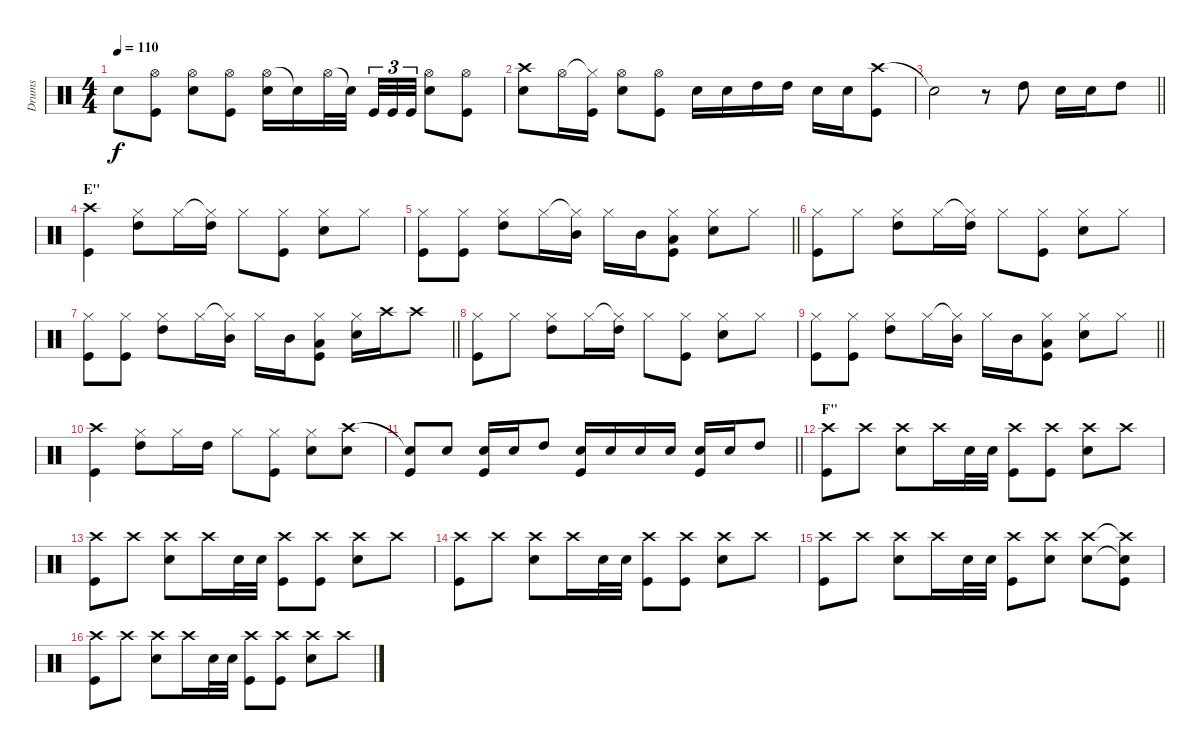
\track ("Drums" "Drums") {instrument percussion}
\staff {score}
\articulation defaults
\ts (4 4)
\tempo 110
\clef neutral
\ks c "Snare (hit)"{t}.8{dy f}
("Hi-Hat (open)" "Kick (hit)").8 ("Hi-Hat (open)" "Snare (hit) 2").8 ("Hi-Hat (open)" "Kick (hit)").8 ("Hi-Hat (open)" "Snare (hit) 2").16 "Snare (hit)"{t}.16 "Hi-Hat (open)".32 "Snare (hit)"{t}.32{beam splitsecondary} "Kick (hit)".32{tu (3 2)} "Kick (hit)".32{tu (3 2)} "Kick (hit)".32{tu (3 2)} ("Hi-Hat (open)" "Snare (hit) 2").8 ("Hi-Hat (open)" "Kick (hit)").8 |
("Crash high (hit)" "Snare (hit) 2").8 "Hi-Hat (open)".16 ("Hi-Hat (closed)"{t} "Kick (hit)").16 ("Hi-Hat (open)" "Snare (hit) 2").8 ("Hi-Hat (open)" "Kick (hit)").8 "Snare (hit) 2".16 "Snare (hit) 2".16 "High Tom (hit)".16 "High Tom (hit)".16 "Snare (hit) 2".16 "Snare (hit) 2".16 ("Crash high (hit)" "Kick (hit)").8 |
\barLineRight lightlight "Snare (hit)"{t}.2
r.8 "High Tom (hit)".8 "Snare (hit) 2".16 "Snare (hit) 2".16 "High Tom (hit)".8 |
\section ("" "E\"")
("Crash high (hit)" "Kick (hit)").4 ("Hi-Hat (closed)" "High Tom (hit)").8 "Hi-Hat (closed)".16 ("Hi-Hat (closed)"{t} "High Tom (hit)").16 "Hi-Hat (closed)".8 ("Hi-Hat (closed)" "Kick (hit)").8 ("Hi-Hat (closed)" "Snare (hit) 2").8 "Hi-Hat (closed)".8 |
\barLineRight lightlight
("Hi-Hat (closed)" "Kick (hit)").8 ("Hi-Hat (closed)" "Kick (hit)").8 ("Hi-Hat (closed)" "High Tom (hit)").8 "Hi-Hat (closed)".16 ("Hi-Hat (closed)"{t} "Mid Tom (hit)").16 "Hi-Hat (closed)".16 "Mid Tom (hit)".16 ("Hi-Hat (closed)" "Low Floor Tom (hit)" "Kick (hit)").8 ("Hi-Hat (closed)" "Snare (hit) 2").8 "Hi-Hat (closed)".8 |
("Hi-Hat (closed)" "Kick (hit)").8 "Hi-Hat (closed)".8 ("Hi-Hat (closed)" "High Tom (hit)").8 "Hi-Hat (closed)".16 ("Hi-Hat (closed)"{t} "High Tom (hit)").16 "Hi-Hat (closed)".8 ("Hi-Hat (closed)" "Kick (hit)").8 ("Hi-Hat (closed)" "Snare (hit) 2").8 "Hi-Hat (closed)".8 |
\barLineRight lightlight
("Hi-Hat (closed)" "Kick (hit)").8 ("Hi-Hat (closed)" "Kick (hit)").8 ("Hi-Hat (closed)" "High Tom (hit)").8 "Hi-Hat (closed)".16 ("Hi-Hat (closed)"{t} "Mid Tom (hit)").16 "Hi-Hat (closed)".16 "Mid Tom (hit)".16 ("Hi-Hat (closed)" "Low Floor Tom (hit)" "Kick (hit)").8 ("Hi-Hat (closed)" "Snare (hit) 2").16 "Crash high (hit)".16 "Crash high (hit)".8 |
("Hi-Hat (closed)" "Kick (hit)").8 "Hi-Hat (closed)".8 ("Hi-Hat (closed)" "High Tom (hit)").8 "Hi-Hat (closed)".16 ("Hi-Hat (closed)"{t} "High Tom (hit)").16 "Hi-Hat (closed)".8 ("Hi-Hat (closed)" "Kick (hit)").8 ("Hi-Hat (closed)" "Snare (hit) 2").8 "Hi-Hat (closed)".8 |
\barLineRight lightlight
("Hi-Hat (closed)" "Kick (hit)").8 ("Hi-Hat (closed)" "Kick (hit)").8 ("Hi-Hat (closed)" "High Tom (hit)").8 "Hi-Hat (closed)".16 ("Hi-Hat (closed)"{t} "Mid Tom (hit)").16 "Hi-Hat (closed)".16 "Mid Tom (hit)".16 ("Hi-Hat (closed)" "Low Floor Tom (hit)" "Kick (hit)").8 ("Hi-Hat (closed)" "Snare (hit) 2").8 "Hi-Hat (closed)".8 |
("Crash high (hit)" "Kick (hit)").4 ("Hi-Hat (closed)" "High Tom (hit)").8 "Hi-Hat (closed)".16 "High Tom (hit)".16 "Hi-Hat (closed)".8 ("Hi-Hat (closed)" "Kick (hit)").8 ("Hi-Hat (closed)" "Snare (hit) 2").8 ("Crash high (hit)" "Snare (hit) 2").8 |
\barLineRight lightlight
("Snare (hit)"{t} "Kick (hit)").8 "Snare (hit) 2".8 ("Snare (hit) 2" "Kick (hit)").16 "Snare (hit) 2".16 "High Tom (hit)".8 ("Snare (hit) 2" "Kick (hit)").16 "Snare (hit) 2".16 "Snare (hit) 2".16 "Snare (hit) 2".16 ("Snare (hit) 2" "Kick (hit)").16 "Snare (hit) 2".16 "High Tom (hit)".8 |
\section ("" "F\"")
("Crash high (hit)" "Kick (hit)").8 "Crash high (hit)".8 ("Crash high (hit)" "Snare (hit) 2").8 "Crash high (hit)".16 "Snare (hit) 2".32 "Snare (hit) 2".32 ("Crash high (hit)" "Kick (hit)").8 ("Crash high (hit)" "Kick (hit)").8 ("Crash high (hit)" "Snare (hit) 2").8 "Crash high (hit)".8 |
("Crash high (hit)" "Kick (hit)").8 "Crash high (hit)".8 ("Crash high (hit)" "Snare (hit) 2").8 "Crash high (hit)".16 "Snare (hit) 2".32 "Snare (hit) 2".32 ("Crash high (hit)" "Kick (hit)").8 ("Crash high (hit)" "Kick (hit)").8 ("Crash high (hit)" "Snare (hit) 2").8 "Crash high (hit)".8 |
("Crash high (hit)" "Kick (hit)").8 "Crash high (hit)".8 ("Crash high (hit)" "Snare (hit) 2").8 "Crash high (hit)".16 "Snare (hit) 2".32 "Snare (hit) 2".32 ("Crash high (hit)" "Kick (hit)").8 ("Crash high (hit)" "Kick (hit)").8 ("Crash high (hit)" "Snare (hit) 2").8 "Crash high (hit)".8 |
("Crash high (hit)" "Kick (hit)").8 "Crash high (hit)".8 ("Crash high (hit)" "Snare (hit) 2").8 "Crash high (hit)".16 "Snare (hit) 2".32 "Snare (hit) 2".32 ("Crash high (hit)" "Kick (hit)").8 ("Crash high (hit)" "Snare (hit) 2").8 ("Crash high (hit)" "Snare (hit) 2").8 ("Crash high (hit)"{t} "Snare (hit)"{t} "Kick (hit)").8 |
("Crash high (hit)" "Kick (hit)").8 "Crash high (hit)".8 ("Crash high (hit)" "Snare (hit) 2").8 "Crash high (hit)".16 "Snare (hit) 2".32 "Snare (hit) 2".32 ("Crash high (hit)" "Kick (hit)").8 ("Crash high (hit)" "Kick (hit)").8 ("Crash high (hit)" "Snare (hit) 2").8 "Crash high (hit)".8
